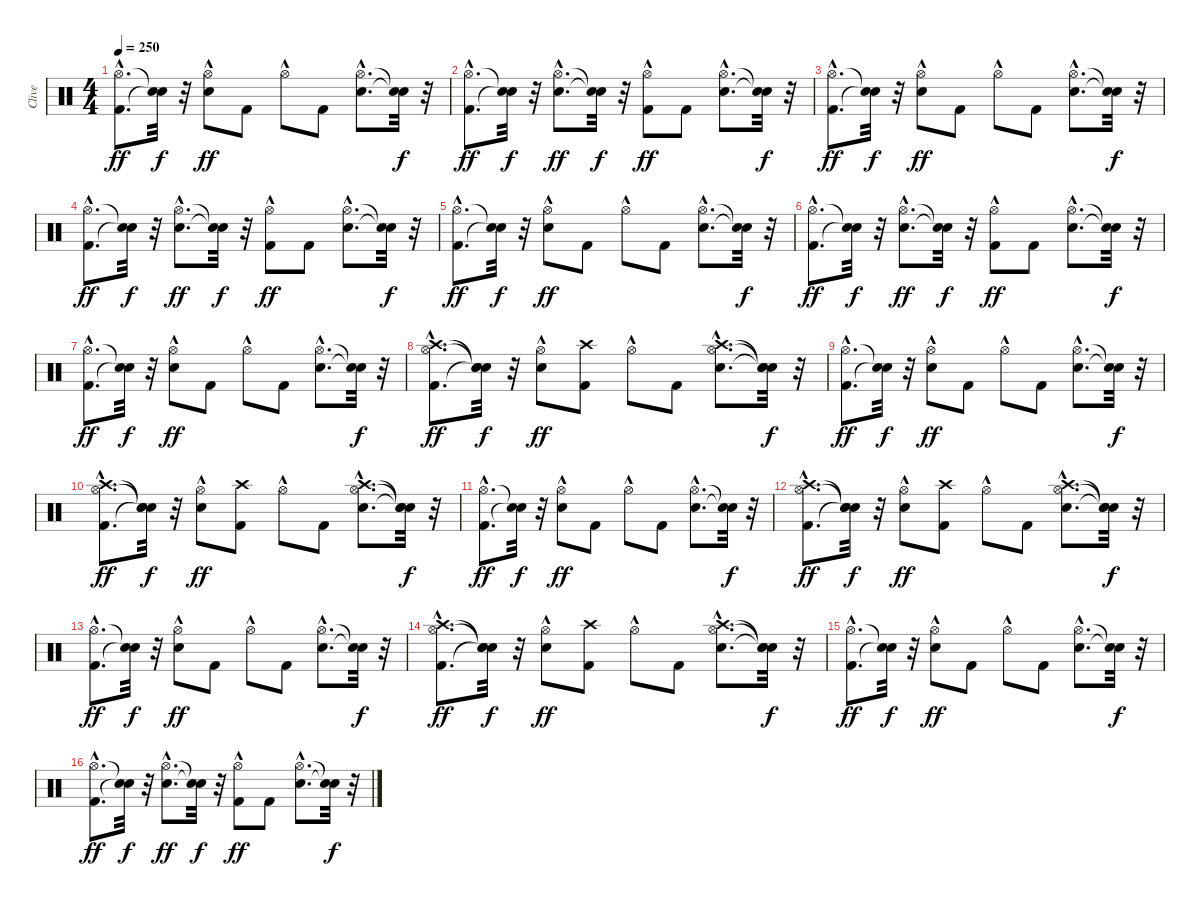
\track ("Clive" "Clive") {instrument percussion}
\staff {score}
\articulation defaults
\ts (4 4)
\tempo 250
\clef neutral
\ks c
("Kick (hit) 2"{hac} "Hi-Hat (open)"{hac}).8{d dy ff} ("Snare (hit)"{t} "Snare (hit)"{t}).32{dy f} r.32 ("Snare (hit) 2" "Hi-Hat (open)"{hac}).8{dy ff} "Kick (hit) 2".8 "Hi-Hat (open)"{hac}.8 "Kick (hit) 2".8 ("Snare (hit) 2"{hac} "Hi-Hat (open)"{hac}).8{d} ("Snare (hit)"{t} "Snare (hit)"{t}).32{dy f} r.32 |
("Kick (hit) 2"{hac} "Hi-Hat (open)"{hac}).8{d dy ff} ("Snare (hit)"{t} "Snare (hit)"{t}).32{dy f} r.32 ("Snare (hit) 2"{hac} "Hi-Hat (open)"{hac}).8{d dy ff} ("Snare (hit)"{t} "Snare (hit)"{t}).32{dy f} r.32 ("Kick (hit) 2" "Hi-Hat (open)"{hac}).8{dy ff} "Kick (hit) 2".8 ("Snare (hit) 2"{hac} "Hi-Hat (open)"{hac}).8{d} ("Snare (hit)"{t} "Snare (hit)"{t}).32{dy f} r.32 |
("Kick (hit) 2"{hac} "Hi-Hat (open)"{hac}).8{d dy ff} ("Snare (hit)"{t} "Snare (hit)"{t}).32{dy f} r.32 ("Snare (hit) 2" "Hi-Hat (open)"{hac}).8{dy ff} "Kick (hit) 2".8 "Hi-Hat (open)"{hac}.8 "Kick (hit) 2".8 ("Snare (hit) 2"{hac} "Hi-Hat (open)"{hac}).8{d} ("Snare (hit)"{t} "Snare (hit)"{t}).32{dy f} r.32 |
("Kick (hit) 2"{hac} "Hi-Hat (open)"{hac}).8{d dy ff} ("Snare (hit)"{t} "Snare (hit)"{t}).32{dy f} r.32 ("Snare (hit) 2"{hac} "Hi-Hat (open)"{hac}).8{d dy ff} ("Snare (hit)"{t} "Snare (hit)"{t}).32{dy f} r.32 ("Kick (hit) 2" "Hi-Hat (open)"{hac}).8{dy ff} "Kick (hit) 2".8 ("Snare (hit) 2"{hac} "Hi-Hat (open)"{hac}).8{d} ("Snare (hit)"{t} "Snare (hit)"{t}).32{dy f} r.32 |
("Kick (hit) 2"{hac} "Hi-Hat (open)"{hac}).8{d dy ff} ("Snare (hit)"{t} "Snare (hit)"{t}).32{dy f} r.32 ("Snare (hit) 2" "Hi-Hat (open)"{hac}).8{dy ff} "Kick (hit) 2".8 "Hi-Hat (open)"{hac}.8 "Kick (hit) 2".8 ("Snare (hit) 2"{hac} "Hi-Hat (open)"{hac}).8{d} ("Snare (hit)"{t} "Snare (hit)"{t}).32{dy f} r.32 |
("Kick (hit) 2"{hac} "Hi-Hat (open)"{hac}).8{d dy ff} ("Snare (hit)"{t} "Snare (hit)"{t}).32{dy f} r.32 ("Snare (hit) 2"{hac} "Hi-Hat (open)"{hac}).8{d dy ff} ("Snare (hit)"{t} "Snare (hit)"{t}).32{dy f} r.32 ("Kick (hit) 2" "Hi-Hat (open)"{hac}).8{dy ff} "Kick (hit) 2".8 ("Snare (hit) 2"{hac} "Hi-Hat (open)"{hac}).8{d} ("Snare (hit)"{t} "Snare (hit)"{t}).32{dy f} r.32 |
("Kick (hit) 2"{hac} "Hi-Hat (open)"{hac}).8{d dy ff} ("Snare (hit)"{t} "Snare (hit)"{t}).32{dy f} r.32 ("Snare (hit) 2" "Hi-Hat (open)"{hac}).8{dy ff} "Kick (hit) 2".8 "Hi-Hat (open)"{hac}.8 "Kick (hit) 2".8 ("Snare (hit) 2"{hac} "Hi-Hat (open)"{hac}).8{d} ("Snare (hit)"{t} "Snare (hit)"{t}).32{dy f} r.32 |
("Kick (hit) 2"{hac} "Hi-Hat (open)"{hac} "Crash high (hit)"{hac}).8{d dy ff} ("Snare (hit)"{t} "Snare (hit)"{t} "Snare (hit)"{t}).32{dy f} r.32 ("Snare (hit) 2" "Hi-Hat (open)"{hac}).8{dy ff} ("Kick (hit) 2" "Crash high (hit)").8 "Hi-Hat (open)"{hac}.8 "Kick (hit) 2".8 ("Snare (hit) 2"{hac} "Hi-Hat (open)"{hac} "Crash high (hit)"{hac}).8{d} ("Snare (hit)"{t} "Snare (hit)"{t} "Snare (hit)"{t}).32{dy f} r.32 |
("Kick (hit) 2"{hac} "Hi-Hat (open)"{hac}).8{d dy ff} ("Snare (hit)"{t} "Snare (hit)"{t}).32{dy f} r.32 ("Snare (hit) 2" "Hi-Hat (open)"{hac}).8{dy ff} "Kick (hit) 2".8 "Hi-Hat (open)"{hac}.8 "Kick (hit) 2".8 ("Snare (hit) 2"{hac} "Hi-Hat (open)"{hac}).8{d} ("Snare (hit)"{t} "Snare (hit)"{t}).32{dy f} r.32 |
("Kick (hit) 2"{hac} "Hi-Hat (open)"{hac} "Crash high (hit)"{hac}).8{d dy ff} ("Snare (hit)"{t} "Snare (hit)"{t} "Snare (hit)"{t}).32{dy f} r.32 ("Snare (hit) 2" "Hi-Hat (open)"{hac}).8{dy ff} ("Kick (hit) 2" "Crash high (hit)").8 "Hi-Hat (open)"{hac}.8 "Kick (hit) 2".8 ("Snare (hit) 2"{hac} "Hi-Hat (open)"{hac} "Crash high (hit)"{hac}).8{d} ("Snare (hit)"{t} "Snare (hit)"{t} "Snare (hit)"{t}).32{dy f} r.32 |
("Kick (hit) 2"{hac} "Hi-Hat (open)"{hac}).8{d dy ff} ("Snare (hit)"{t} "Snare (hit)"{t}).32{dy f} r.32 ("Snare (hit) 2" "Hi-Hat (open)"{hac}).8{dy ff} "Kick (hit) 2".8 "Hi-Hat (open)"{hac}.8 "Kick (hit) 2".8 ("Snare (hit) 2"{hac} "Hi-Hat (open)"{hac}).8{d} ("Snare (hit)"{t} "Snare (hit)"{t}).32{dy f} r.32 |
("Kick (hit) 2"{hac} "Hi-Hat (open)"{hac} "Crash high (hit)"{hac}).8{d dy ff} ("Snare (hit)"{t} "Snare (hit)"{t} "Snare (hit)"{t}).32{dy f} r.32 ("Snare (hit) 2" "Hi-Hat (open)"{hac}).8{dy ff} ("Kick (hit) 2" "Crash high (hit)").8 "Hi-Hat (open)"{hac}.8 "Kick (hit) 2".8 ("Snare (hit) 2"{hac} "Hi-Hat (open)"{hac} "Crash high (hit)"{hac}).8{d} ("Snare (hit)"{t} "Snare (hit)"{t} "Snare (hit)"{t}).32{dy f} r.32 |
("Kick (hit) 2"{hac} "Hi-Hat (open)"{hac}).8{d dy ff} ("Snare (hit)"{t} "Snare (hit)"{t}).32{dy f} r.32 ("Snare (hit) 2" "Hi-Hat (open)"{hac}).8{dy ff} "Kick (hit) 2".8 "Hi-Hat (open)"{hac}.8 "Kick (hit) 2".8 ("Snare (hit) 2"{hac} "Hi-Hat (open)"{hac}).8{d} ("Snare (hit)"{t} "Snare (hit)"{t}).32{dy f} r.32 |
("Kick (hit) 2"{hac} "Hi-Hat (open)"{hac} "Crash high (hit)"{hac}).8{d dy ff} ("Snare (hit)"{t} "Snare (hit)"{t} "Snare (hit)"{t}).32{dy f} r.32 ("Snare (hit) 2" "Hi-Hat (open)"{hac}).8{dy ff} ("Kick (hit) 2" "Crash high (hit)").8 "Hi-Hat (open)"{hac}.8 "Kick (hit) 2".8 ("Snare (hit) 2"{hac} "Hi-Hat (open)"{hac} "Crash high (hit)"{hac}).8{d} ("Snare (hit)"{t} "Snare (hit)"{t} "Snare (hit)"{t}).32{dy f} r.32 |
("Kick (hit) 2"{hac} "Hi-Hat (open)"{hac}).8{d dy ff} ("Snare (hit)"{t} "Snare (hit)"{t}).32{dy f} r.32 ("Snare (hit) 2" "Hi-Hat (open)"{hac}).8{dy ff} "Kick (hit) 2".8 "Hi-Hat (open)"{hac}.8 "Kick (hit) 2".8 ("Snare (hit) 2"{hac} "Hi-Hat (open)"{hac}).8{d} ("Snare (hit)"{t} "Snare (hit)"{t}).32{dy f} r.32 |
("Kick (hit) 2"{hac} "Hi-Hat (open)"{hac}).8{d dy ff} ("Snare (hit)"{t} "Snare (hit)"{t}).32{dy f} r.32 ("Snare (hit) 2"{hac} "Hi-Hat (open)"{hac}).8{d dy ff} ("Snare (hit)"{t} "Snare (hit)"{t}).32{dy f} r.32 ("Kick (hit) 2" "Hi-Hat (open)"{hac}).8{dy ff} "Kick (hit) 2".8 ("Snare (hit) 2"{hac} "Hi-Hat (open)"{hac}).8{d} ("Snare (hit)"{t} "Snare (hit)"{t}).32{dy f} r.32
